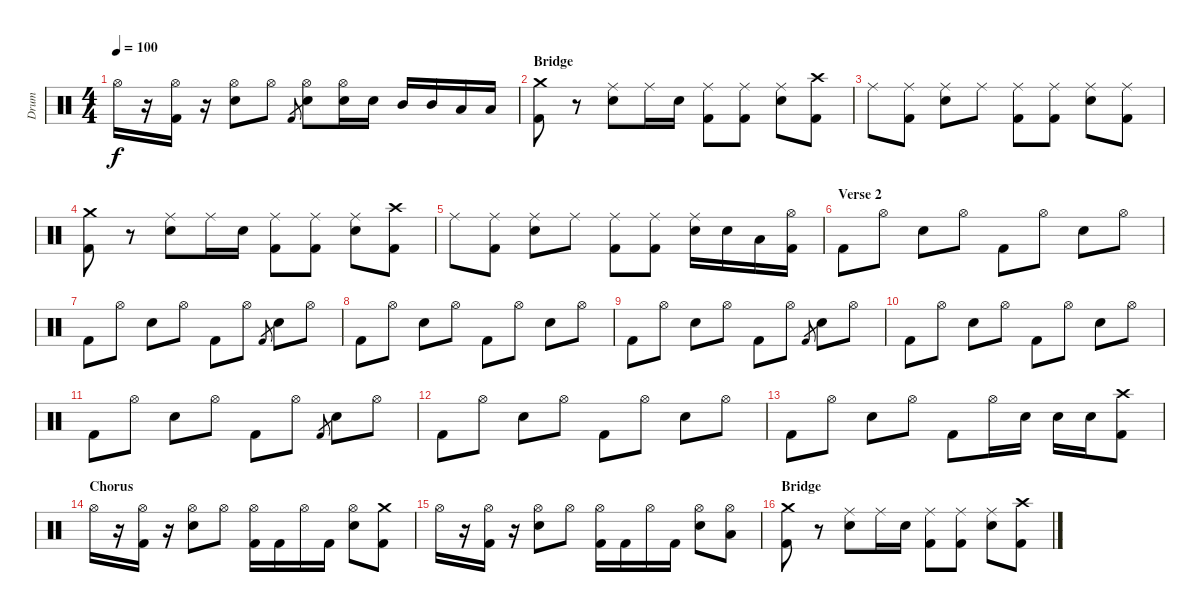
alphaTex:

\track ("Drum" "Drum") {instrument percussion}
\staff {score}
\articulation defaults
\ts (4 4)
\tempo 100
\clef neutral
\ks c "Hi-Hat (open)".16{dy f}
r.16 ("Hi-Hat (open)" "Kick (hit) 2").16 r.16 ("Hi-Hat (open)" "Snare (hit) 2").8 "Hi-Hat (open)".8 "Kick (hit) 2".8{gr} ("Hi-Hat (open)" "Snare (hit) 2").8 ("Hi-Hat (open)" "Snare (hit) 2").16 "Snare (hit) 2".16 "Mid Tom (hit)".16 "Mid Tom (hit)".16 "Low Tom (hit)".16 "Low Tom (hit)".16 |
\section ("" "Bridge")
("Crash medium (hit)" "Kick (hit) 2").8 r.8 ("Ride (middle)" "Snare (hit) 2").8 "Ride (middle)".16 "Snare (hit) 2".16 ("Ride (middle)" "Kick (hit) 2").8 ("Ride (middle)" "Kick (hit) 2").8 ("Ride (middle)" "Snare (hit) 2").8 ("Crash high (hit)" "Kick (hit) 2").8 |
"Ride (middle)".8 ("Ride (middle)" "Kick (hit) 2").8 ("Ride (middle)" "Snare (hit) 2").8 "Ride (middle)".8 ("Ride (middle)" "Kick (hit) 2").8 ("Ride (middle)" "Kick (hit) 2").8 ("Ride (middle)" "Snare (hit) 2").8 ("Ride (middle)" "Kick (hit) 2").8 |
("Crash medium (hit)" "Kick (hit) 2").8 r.8 ("Ride (middle)" "Snare (hit) 2").8 "Ride (middle)".16 "Snare (hit) 2".16 ("Ride (middle)" "Kick (hit) 2").8 ("Ride (middle)" "Kick (hit) 2").8 ("Ride (middle)" "Snare (hit) 2").8 ("Crash high (hit)" "Kick (hit) 2").8 |
"Ride (middle)".8 ("Ride (middle)" "Kick (hit) 2").8 ("Ride (middle)" "Snare (hit) 2").8 "Ride (middle)".8 ("Ride (middle)" "Kick (hit) 2").8 ("Ride (middle)" "Kick (hit) 2").8 ("Ride (middle)" "Snare (hit) 2").16 "Snare (hit) 2".16 "Low Tom (hit)".16 ("Hi-Hat (open)" "Kick (hit) 2").16 |
\section ("" "Verse 2")
"Kick (hit) 2".8 "Hi-Hat (open)".8 "Snare (hit) 2".8 "Hi-Hat (open)".8 "Kick (hit) 2".8 "Hi-Hat (open)".8 "Snare (hit) 2".8 "Hi-Hat (open)".8 |
"Kick (hit) 2".8 "Hi-Hat (open)".8 "Snare (hit) 2".8 "Hi-Hat (open)".8 "Kick (hit) 2".8 "Hi-Hat (open)".8 "Kick (hit) 2".8{gr} "Snare (hit) 2".8 "Hi-Hat (open)".8 |
"Kick (hit) 2".8 "Hi-Hat (open)".8 "Snare (hit) 2".8 "Hi-Hat (open)".8 "Kick (hit) 2".8 "Hi-Hat (open)".8 "Snare (hit) 2".8 "Hi-Hat (open)".8 |
"Kick (hit) 2".8 "Hi-Hat (open)".8 "Snare (hit) 2".8 "Hi-Hat (open)".8 "Kick (hit) 2".8 "Hi-Hat (open)".8 "Kick (hit) 2".8{gr} "Snare (hit) 2".8 "Hi-Hat (open)".8 |
"Kick (hit) 2".8 "Hi-Hat (open)".8 "Snare (hit) 2".8 "Hi-Hat (open)".8 "Kick (hit) 2".8 "Hi-Hat (open)".8 "Snare (hit) 2".8 "Hi-Hat (open)".8 |
"Kick (hit) 2".8 "Hi-Hat (open)".8 "Snare (hit) 2".8 "Hi-Hat (open)".8 "Kick (hit) 2".8 "Hi-Hat (open)".8 "Kick (hit) 2".8{gr} "Snare (hit) 2".8 "Hi-Hat (open)".8 |
"Kick (hit) 2".8 "Hi-Hat (open)".8 "Snare (hit) 2".8 "Hi-Hat (open)".8 "Kick (hit) 2".8 "Hi-Hat (open)".8 "Snare (hit) 2".8 "Hi-Hat (open)".8 |
"Kick (hit) 2".8 "Hi-Hat (open)".8 "Snare (hit) 2".8 "Hi-Hat (open)".8 "Kick (hit) 2".8 "Hi-Hat (open)".16 "Snare (hit) 2".16 "Snare (hit) 2".16 "Snare (hit) 2".16 ("Crash high (hit)" "Kick (hit) 2").8 |
\section ("" "Chorus")
"Hi-Hat (open)".16 r.16 ("Hi-Hat (open)" "Kick (hit) 2").16 r.16 ("Hi-Hat (open)" "Snare (hit) 2").8 "Hi-Hat (open)".8 ("Hi-Hat (open)" "Kick (hit) 2").16 "Kick (hit) 2".16 "Hi-Hat (open)".16 "Kick (hit) 2".16 ("Hi-Hat (open)" "Snare (hit) 2").8 ("Crash medium (hit)" "Kick (hit) 2").8 |
"Hi-Hat (open)".16 r.16 ("Hi-Hat (open)" "Kick (hit) 2").16 r.16 ("Hi-Hat (open)" "Snare (hit) 2").8 "Hi-Hat (open)".8 ("Hi-Hat (open)" "Kick (hit) 2").16 "Kick (hit) 2".16 "Hi-Hat (open)".16 "Kick (hit) 2".16 ("Hi-Hat (open)" "Snare (hit) 2").8 ("Hi-Hat (open)" "Low Tom (hit)").8 |
\section ("" "Bridge")
("Crash medium (hit)" "Kick (hit) 2").8 r.8 ("Ride (middle)" "Snare (hit) 2").8 "Ride (middle)".16 "Snare (hit) 2".16 ("Ride (middle)" "Kick (hit) 2").8 ("Ride (middle)" "Kick (hit) 2").8 ("Ride (middle)" "Snare (hit) 2").8 ("Crash high (hit)" "Kick (hit) 2").8
